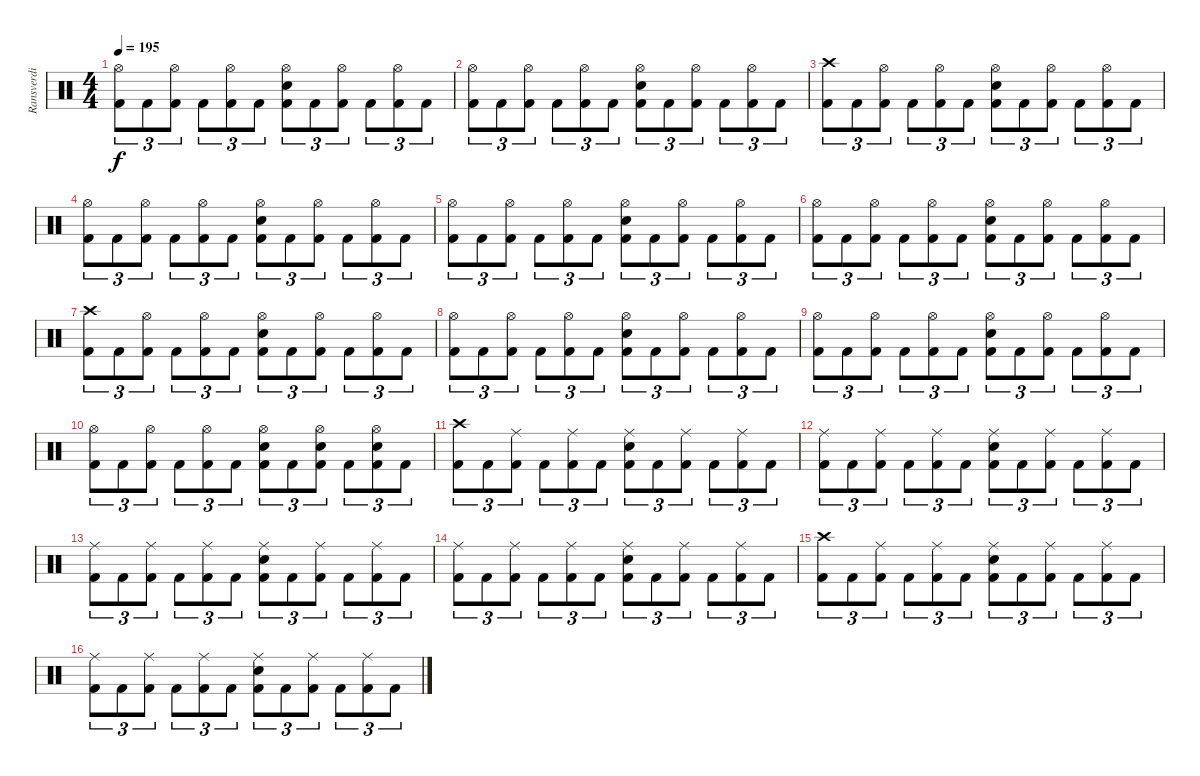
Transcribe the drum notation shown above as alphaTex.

\track ("Ransverdi" "Ransverdi") {instrument percussion}
\staff {score}
\articulation defaults
\ts (4 4)
\tempo 195
\clef neutral
\ks c
("Hi-Hat (open)" "Kick (hit) 2").8{tu (3 2) dy f} "Kick (hit) 2".8{tu (3 2)} ("Hi-Hat (open)" "Kick (hit) 2").8{tu (3 2)} "Kick (hit) 2".8{tu (3 2)} ("Hi-Hat (open)" "Kick (hit) 2").8{tu (3 2)} "Kick (hit) 2".8{tu (3 2)} ("Hi-Hat (open)" "Snare (hit) 2" "Kick (hit) 2").8{tu (3 2)} "Kick (hit) 2".8{tu (3 2)} ("Hi-Hat (open)" "Kick (hit) 2").8{tu (3 2)} "Kick (hit) 2".8{tu (3 2)} ("Hi-Hat (open)" "Kick (hit) 2").8{tu (3 2)} "Kick (hit) 2".8{tu (3 2)} |
("Hi-Hat (open)" "Kick (hit) 2").8{tu (3 2)} "Kick (hit) 2".8{tu (3 2)} ("Hi-Hat (open)" "Kick (hit) 2").8{tu (3 2)} "Kick (hit) 2".8{tu (3 2)} ("Hi-Hat (open)" "Kick (hit) 2").8{tu (3 2)} "Kick (hit) 2".8{tu (3 2)} ("Hi-Hat (open)" "Snare (hit) 2" "Kick (hit) 2").8{tu (3 2)} "Kick (hit) 2".8{tu (3 2)} ("Hi-Hat (open)" "Kick (hit) 2").8{tu (3 2)} "Kick (hit) 2".8{tu (3 2)} ("Hi-Hat (open)" "Kick (hit) 2").8{tu (3 2)} "Kick (hit) 2".8{tu (3 2)} |
("Crash high (hit)" "Kick (hit) 2").8{tu (3 2)} "Kick (hit) 2".8{tu (3 2)} ("Hi-Hat (open)" "Kick (hit) 2").8{tu (3 2)} "Kick (hit) 2".8{tu (3 2)} ("Hi-Hat (open)" "Kick (hit) 2").8{tu (3 2)} "Kick (hit) 2".8{tu (3 2)} ("Hi-Hat (open)" "Snare (hit) 2" "Kick (hit) 2").8{tu (3 2)} "Kick (hit) 2".8{tu (3 2)} ("Hi-Hat (open)" "Kick (hit) 2").8{tu (3 2)} "Kick (hit) 2".8{tu (3 2)} ("Hi-Hat (open)" "Kick (hit) 2").8{tu (3 2)} "Kick (hit) 2".8{tu (3 2)} |
("Hi-Hat (open)" "Kick (hit) 2").8{tu (3 2)} "Kick (hit) 2".8{tu (3 2)} ("Hi-Hat (open)" "Kick (hit) 2").8{tu (3 2)} "Kick (hit) 2".8{tu (3 2)} ("Hi-Hat (open)" "Kick (hit) 2").8{tu (3 2)} "Kick (hit) 2".8{tu (3 2)} ("Hi-Hat (open)" "Snare (hit) 2" "Kick (hit) 2").8{tu (3 2)} "Kick (hit) 2".8{tu (3 2)} ("Hi-Hat (open)" "Kick (hit) 2").8{tu (3 2)} "Kick (hit) 2".8{tu (3 2)} ("Hi-Hat (open)" "Kick (hit) 2").8{tu (3 2)} "Kick (hit) 2".8{tu (3 2)} |
("Hi-Hat (open)" "Kick (hit) 2").8{tu (3 2)} "Kick (hit) 2".8{tu (3 2)} ("Hi-Hat (open)" "Kick (hit) 2").8{tu (3 2)} "Kick (hit) 2".8{tu (3 2)} ("Hi-Hat (open)" "Kick (hit) 2").8{tu (3 2)} "Kick (hit) 2".8{tu (3 2)} ("Hi-Hat (open)" "Snare (hit) 2" "Kick (hit) 2").8{tu (3 2)} "Kick (hit) 2".8{tu (3 2)} ("Hi-Hat (open)" "Kick (hit) 2").8{tu (3 2)} "Kick (hit) 2".8{tu (3 2)} ("Hi-Hat (open)" "Kick (hit) 2").8{tu (3 2)} "Kick (hit) 2".8{tu (3 2)} |
("Hi-Hat (open)" "Kick (hit) 2").8{tu (3 2)} "Kick (hit) 2".8{tu (3 2)} ("Hi-Hat (open)" "Kick (hit) 2").8{tu (3 2)} "Kick (hit) 2".8{tu (3 2)} ("Hi-Hat (open)" "Kick (hit) 2").8{tu (3 2)} "Kick (hit) 2".8{tu (3 2)} ("Hi-Hat (open)" "Snare (hit) 2" "Kick (hit) 2").8{tu (3 2)} "Kick (hit) 2".8{tu (3 2)} ("Hi-Hat (open)" "Kick (hit) 2").8{tu (3 2)} "Kick (hit) 2".8{tu (3 2)} ("Hi-Hat (open)" "Kick (hit) 2").8{tu (3 2)} "Kick (hit) 2".8{tu (3 2)} |
("Crash high (hit)" "Kick (hit) 2").8{tu (3 2)} "Kick (hit) 2".8{tu (3 2)} ("Hi-Hat (open)" "Kick (hit) 2").8{tu (3 2)} "Kick (hit) 2".8{tu (3 2)} ("Hi-Hat (open)" "Kick (hit) 2").8{tu (3 2)} "Kick (hit) 2".8{tu (3 2)} ("Hi-Hat (open)" "Snare (hit) 2" "Kick (hit) 2").8{tu (3 2)} "Kick (hit) 2".8{tu (3 2)} ("Hi-Hat (open)" "Kick (hit) 2").8{tu (3 2)} "Kick (hit) 2".8{tu (3 2)} ("Hi-Hat (open)" "Kick (hit) 2").8{tu (3 2)} "Kick (hit) 2".8{tu (3 2)} |
("Hi-Hat (open)" "Kick (hit) 2").8{tu (3 2)} "Kick (hit) 2".8{tu (3 2)} ("Hi-Hat (open)" "Kick (hit) 2").8{tu (3 2)} "Kick (hit) 2".8{tu (3 2)} ("Hi-Hat (open)" "Kick (hit) 2").8{tu (3 2)} "Kick (hit) 2".8{tu (3 2)} ("Hi-Hat (open)" "Snare (hit) 2" "Kick (hit) 2").8{tu (3 2)} "Kick (hit) 2".8{tu (3 2)} ("Hi-Hat (open)" "Kick (hit) 2").8{tu (3 2)} "Kick (hit) 2".8{tu (3 2)} ("Hi-Hat (open)" "Kick (hit) 2").8{tu (3 2)} "Kick (hit) 2".8{tu (3 2)} |
("Hi-Hat (open)" "Kick (hit) 2").8{tu (3 2)} "Kick (hit) 2".8{tu (3 2)} ("Hi-Hat (open)" "Kick (hit) 2").8{tu (3 2)} "Kick (hit) 2".8{tu (3 2)} ("Hi-Hat (open)" "Kick (hit) 2").8{tu (3 2)} "Kick (hit) 2".8{tu (3 2)} ("Hi-Hat (open)" "Snare (hit) 2" "Kick (hit) 2").8{tu (3 2)} "Kick (hit) 2".8{tu (3 2)} ("Hi-Hat (open)" "Kick (hit) 2").8{tu (3 2)} "Kick (hit) 2".8{tu (3 2)} ("Hi-Hat (open)" "Kick (hit) 2").8{tu (3 2)} "Kick (hit) 2".8{tu (3 2)} |
("Hi-Hat (open)" "Kick (hit) 2").8{tu (3 2)} "Kick (hit) 2".8{tu (3 2)} ("Hi-Hat (open)" "Kick (hit) 2").8{tu (3 2)} "Kick (hit) 2".8{tu (3 2)} ("Hi-Hat (open)" "Kick (hit) 2").8{tu (3 2)} "Kick (hit) 2".8{tu (3 2)} ("Hi-Hat (open)" "Snare (hit) 2" "Kick (hit) 2").8{tu (3 2)} "Kick (hit) 2".8{tu (3 2)} ("Hi-Hat (open)" "Snare (hit) 2" "Kick (hit) 2").8{tu (3 2)} "Kick (hit) 2".8{tu (3 2)} ("Hi-Hat (open)" "Snare (hit) 2" "Kick (hit) 2").8{tu (3 2)} "Kick (hit) 2".8{tu (3 2)} |
("Crash high (hit)" "Kick (hit) 2").8{tu (3 2)} "Kick (hit) 2".8{tu (3 2)} ("Ride (middle)" "Kick (hit) 2").8{tu (3 2)} "Kick (hit) 2".8{tu (3 2)} ("Ride (middle)" "Kick (hit) 2").8{tu (3 2)} "Kick (hit) 2".8{tu (3 2)} ("Ride (middle)" "Snare (hit) 2" "Kick (hit) 2").8{tu (3 2)} "Kick (hit) 2".8{tu (3 2)} ("Ride (middle)" "Kick (hit) 2").8{tu (3 2)} "Kick (hit) 2".8{tu (3 2)} ("Ride (middle)" "Kick (hit) 2").8{tu (3 2)} "Kick (hit) 2".8{tu (3 2)} |
("Ride (middle)" "Kick (hit) 2").8{tu (3 2)} "Kick (hit) 2".8{tu (3 2)} ("Ride (middle)" "Kick (hit) 2").8{tu (3 2)} "Kick (hit) 2".8{tu (3 2)} ("Ride (middle)" "Kick (hit) 2").8{tu (3 2)} "Kick (hit) 2".8{tu (3 2)} ("Ride (middle)" "Snare (hit) 2" "Kick (hit) 2").8{tu (3 2)} "Kick (hit) 2".8{tu (3 2)} ("Ride (middle)" "Kick (hit) 2").8{tu (3 2)} "Kick (hit) 2".8{tu (3 2)} ("Ride (middle)" "Kick (hit) 2").8{tu (3 2)} "Kick (hit) 2".8{tu (3 2)} |
("Ride (middle)" "Kick (hit) 2").8{tu (3 2)} "Kick (hit) 2".8{tu (3 2)} ("Ride (middle)" "Kick (hit) 2").8{tu (3 2)} "Kick (hit) 2".8{tu (3 2)} ("Ride (middle)" "Kick (hit) 2").8{tu (3 2)} "Kick (hit) 2".8{tu (3 2)} ("Ride (middle)" "Snare (hit) 2" "Kick (hit) 2").8{tu (3 2)} "Kick (hit) 2".8{tu (3 2)} ("Ride (middle)" "Kick (hit) 2").8{tu (3 2)} "Kick (hit) 2".8{tu (3 2)} ("Ride (middle)" "Kick (hit) 2").8{tu (3 2)} "Kick (hit) 2".8{tu (3 2)} |
("Ride (middle)" "Kick (hit) 2").8{tu (3 2)} "Kick (hit) 2".8{tu (3 2)} ("Ride (middle)" "Kick (hit) 2").8{tu (3 2)} "Kick (hit) 2".8{tu (3 2)} ("Ride (middle)" "Kick (hit) 2").8{tu (3 2)} "Kick (hit) 2".8{tu (3 2)} ("Ride (middle)" "Snare (hit) 2" "Kick (hit) 2").8{tu (3 2)} "Kick (hit) 2".8{tu (3 2)} ("Ride (middle)" "Kick (hit) 2").8{tu (3 2)} "Kick (hit) 2".8{tu (3 2)} ("Ride (middle)" "Kick (hit) 2").8{tu (3 2)} "Kick (hit) 2".8{tu (3 2)} |
("Crash high (hit)" "Kick (hit) 2").8{tu (3 2)} "Kick (hit) 2".8{tu (3 2)} ("Ride (middle)" "Kick (hit) 2").8{tu (3 2)} "Kick (hit) 2".8{tu (3 2)} ("Ride (middle)" "Kick (hit) 2").8{tu (3 2)} "Kick (hit) 2".8{tu (3 2)} ("Ride (middle)" "Snare (hit) 2" "Kick (hit) 2").8{tu (3 2)} "Kick (hit) 2".8{tu (3 2)} ("Ride (middle)" "Kick (hit) 2").8{tu (3 2)} "Kick (hit) 2".8{tu (3 2)} ("Ride (middle)" "Kick (hit) 2").8{tu (3 2)} "Kick (hit) 2".8{tu (3 2)} |
("Ride (middle)" "Kick (hit) 2").8{tu (3 2)} "Kick (hit) 2".8{tu (3 2)} ("Ride (middle)" "Kick (hit) 2").8{tu (3 2)} "Kick (hit) 2".8{tu (3 2)} ("Ride (middle)" "Kick (hit) 2").8{tu (3 2)} "Kick (hit) 2".8{tu (3 2)} ("Ride (middle)" "Snare (hit) 2" "Kick (hit) 2").8{tu (3 2)} "Kick (hit) 2".8{tu (3 2)} ("Ride (middle)" "Kick (hit) 2").8{tu (3 2)} "Kick (hit) 2".8{tu (3 2)} ("Ride (middle)" "Kick (hit) 2").8{tu (3 2)} "Kick (hit) 2".8{tu (3 2)}
